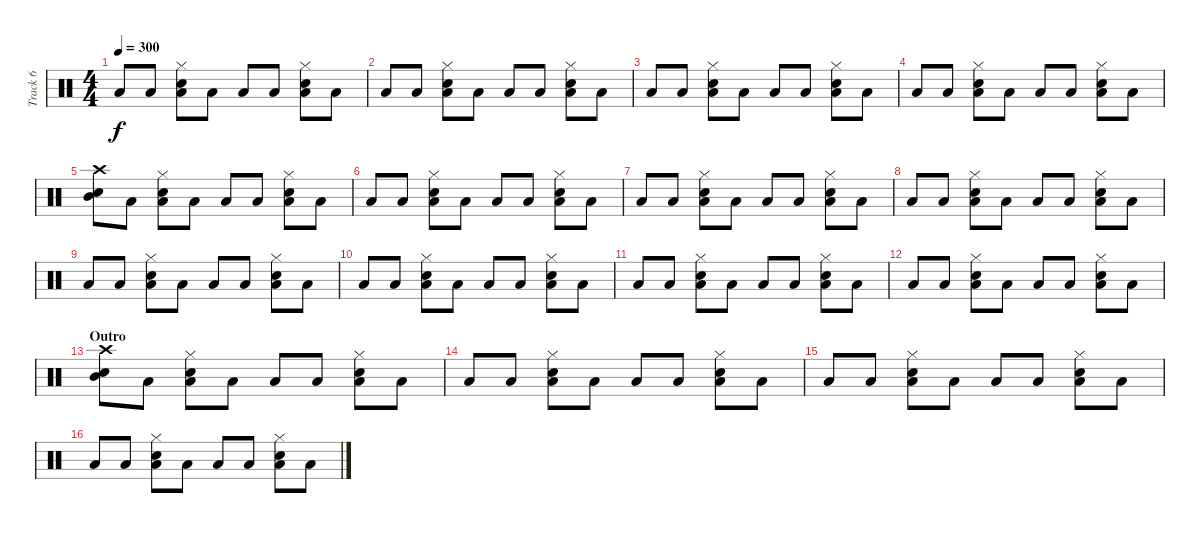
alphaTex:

\track ("Track 6" "Track 6") {instrument percussion}
\staff {score}
\articulation defaults
\ts (4 4)
\tempo 300
\clef neutral
\ks c "Low Floor Tom (hit)".8{dy f} "Low Floor Tom (hit)".8
("Electric Snare (hit)" "Low Tom (hit)" "Hi-Hat (closed)").8 "Low Floor Tom (hit)".8 "Low Floor Tom (hit)".8 "Low Floor Tom (hit)".8 ("Electric Snare (hit)" "Low Tom (hit)" "Hi-Hat (closed)").8 "Low Floor Tom (hit)".8 |
"Low Floor Tom (hit)".8 "Low Floor Tom (hit)".8 ("Electric Snare (hit)" "Low Tom (hit)" "Hi-Hat (closed)").8 "Low Floor Tom (hit)".8 "Low Floor Tom (hit)".8 "Low Floor Tom (hit)".8 ("Electric Snare (hit)" "Low Tom (hit)" "Hi-Hat (closed)").8 "Low Floor Tom (hit)".8 |
"Low Floor Tom (hit)".8 "Low Floor Tom (hit)".8 ("Electric Snare (hit)" "Low Tom (hit)" "Hi-Hat (closed)").8 "Low Floor Tom (hit)".8 "Low Floor Tom (hit)".8 "Low Floor Tom (hit)".8 ("Electric Snare (hit)" "Low Tom (hit)" "Hi-Hat (closed)").8 "Low Floor Tom (hit)".8 |
"Low Floor Tom (hit)".8 "Low Floor Tom (hit)".8 ("Electric Snare (hit)" "Low Tom (hit)" "Hi-Hat (closed)").8 "Low Floor Tom (hit)".8 "Low Floor Tom (hit)".8 "Low Floor Tom (hit)".8 ("Electric Snare (hit)" "Low Tom (hit)" "Hi-Hat (closed)").8 "Low Floor Tom (hit)".8 |
("Snare (hit) 2" "Mid Tom (hit)" "Crash high (hit)").8 "Low Floor Tom (hit)".8 ("Electric Snare (hit)" "Low Tom (hit)" "Hi-Hat (closed)").8 "Low Floor Tom (hit)".8 "Low Floor Tom (hit)".8 "Low Floor Tom (hit)".8 ("Electric Snare (hit)" "Low Tom (hit)" "Hi-Hat (closed)").8 "Low Floor Tom (hit)".8 |
"Low Floor Tom (hit)".8 "Low Floor Tom (hit)".8 ("Electric Snare (hit)" "Low Tom (hit)" "Hi-Hat (closed)").8 "Low Floor Tom (hit)".8 "Low Floor Tom (hit)".8 "Low Floor Tom (hit)".8 ("Electric Snare (hit)" "Low Tom (hit)" "Hi-Hat (closed)").8 "Low Floor Tom (hit)".8 |
"Low Floor Tom (hit)".8 "Low Floor Tom (hit)".8 ("Electric Snare (hit)" "Low Tom (hit)" "Hi-Hat (closed)").8 "Low Floor Tom (hit)".8 "Low Floor Tom (hit)".8 "Low Floor Tom (hit)".8 ("Electric Snare (hit)" "Low Tom (hit)" "Hi-Hat (closed)").8 "Low Floor Tom (hit)".8 |
"Low Floor Tom (hit)".8 "Low Floor Tom (hit)".8 ("Electric Snare (hit)" "Low Tom (hit)" "Hi-Hat (closed)").8 "Low Floor Tom (hit)".8 "Low Floor Tom (hit)".8 "Low Floor Tom (hit)".8 ("Electric Snare (hit)" "Low Tom (hit)" "Hi-Hat (closed)").8 "Low Floor Tom (hit)".8 |
"Low Floor Tom (hit)".8 "Low Floor Tom (hit)".8 ("Electric Snare (hit)" "Low Tom (hit)" "Hi-Hat (closed)").8 "Low Floor Tom (hit)".8 "Low Floor Tom (hit)".8 "Low Floor Tom (hit)".8 ("Electric Snare (hit)" "Low Tom (hit)" "Hi-Hat (closed)").8 "Low Floor Tom (hit)".8 |
"Low Floor Tom (hit)".8 "Low Floor Tom (hit)".8 ("Electric Snare (hit)" "Low Tom (hit)" "Hi-Hat (closed)").8 "Low Floor Tom (hit)".8 "Low Floor Tom (hit)".8 "Low Floor Tom (hit)".8 ("Electric Snare (hit)" "Low Tom (hit)" "Hi-Hat (closed)").8 "Low Floor Tom (hit)".8 |
"Low Floor Tom (hit)".8 "Low Floor Tom (hit)".8 ("Electric Snare (hit)" "Low Tom (hit)" "Hi-Hat (closed)").8 "Low Floor Tom (hit)".8 "Low Floor Tom (hit)".8 "Low Floor Tom (hit)".8 ("Electric Snare (hit)" "Low Tom (hit)" "Hi-Hat (closed)").8 "Low Floor Tom (hit)".8 |
"Low Floor Tom (hit)".8 "Low Floor Tom (hit)".8 ("Electric Snare (hit)" "Low Tom (hit)" "Hi-Hat (closed)").8 "Low Floor Tom (hit)".8 "Low Floor Tom (hit)".8 "Low Floor Tom (hit)".8 ("Electric Snare (hit)" "Low Tom (hit)" "Hi-Hat (closed)").8 "Low Floor Tom (hit)".8 |
\section ("" "Outro")
("Snare (hit) 2" "Mid Tom (hit)" "Crash high (hit)").8 "Low Floor Tom (hit)".8 ("Electric Snare (hit)" "Low Tom (hit)" "Hi-Hat (closed)").8 "Low Floor Tom (hit)".8 "Low Floor Tom (hit)".8 "Low Floor Tom (hit)".8 ("Electric Snare (hit)" "Low Tom (hit)" "Hi-Hat (closed)").8 "Low Floor Tom (hit)".8 |
"Low Floor Tom (hit)".8 "Low Floor Tom (hit)".8 ("Electric Snare (hit)" "Low Tom (hit)" "Hi-Hat (closed)").8 "Low Floor Tom (hit)".8 "Low Floor Tom (hit)".8 "Low Floor Tom (hit)".8 ("Electric Snare (hit)" "Low Tom (hit)" "Hi-Hat (closed)").8 "Low Floor Tom (hit)".8 |
"Low Floor Tom (hit)".8 "Low Floor Tom (hit)".8 ("Electric Snare (hit)" "Low Tom (hit)" "Hi-Hat (closed)").8 "Low Floor Tom (hit)".8 "Low Floor Tom (hit)".8 "Low Floor Tom (hit)".8 ("Electric Snare (hit)" "Low Tom (hit)" "Hi-Hat (closed)").8 "Low Floor Tom (hit)".8 |
"Low Floor Tom (hit)".8 "Low Floor Tom (hit)".8 ("Electric Snare (hit)" "Low Tom (hit)" "Hi-Hat (closed)").8 "Low Floor Tom (hit)".8 "Low Floor Tom (hit)".8 "Low Floor Tom (hit)".8 ("Electric Snare (hit)" "Low Tom (hit)" "Hi-Hat (closed)").8 "Low Floor Tom (hit)".8
